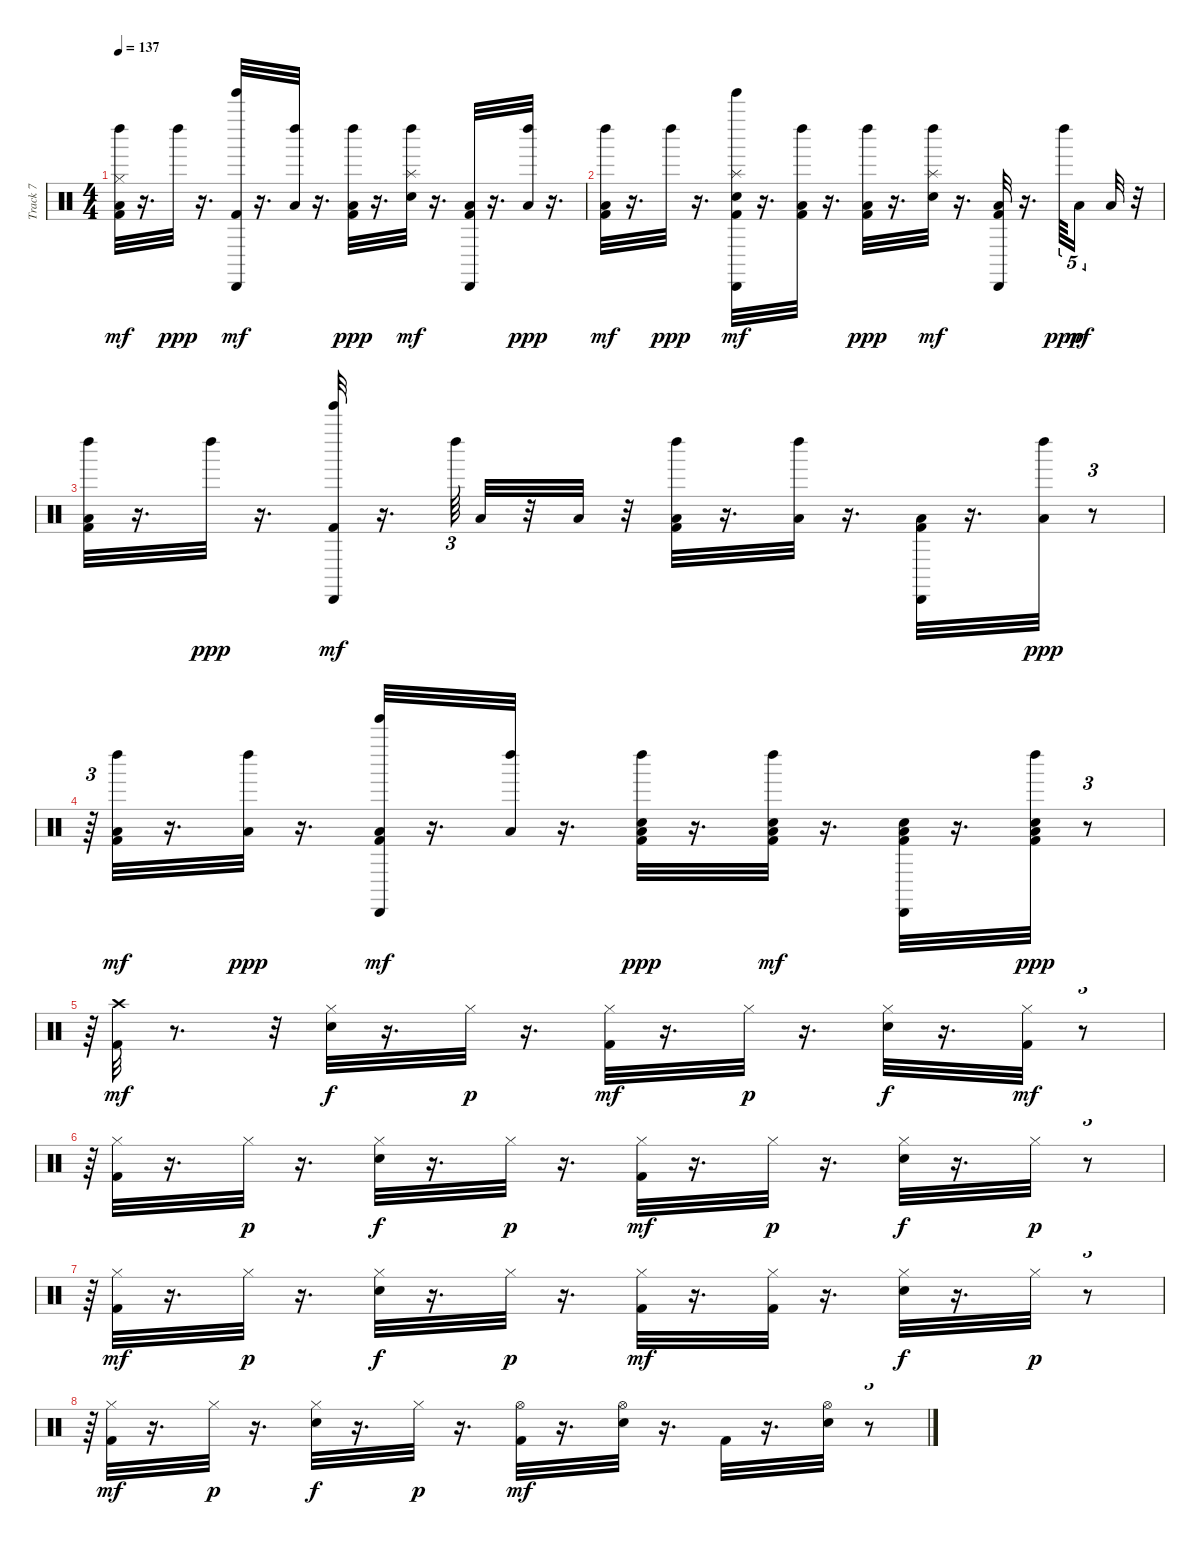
\track ("Track 7" "Track 7") {instrument percussion}
\staff {score}
\articulation defaults
\ts (4 4)
\tempo 137
\clef neutral
\ks c
("Hi-Hat (closed)" "Low Tom (hit)" "Kick (hit) 2" "Left Maraca (hit)").32{dy mf} r.16{d} "Left Maraca (hit)".32{dy ppp} r.16{d} ("Tinkle Bell (hit)" "Kick (hit) 2" "Cabasa (hit)").32{dy mf} r.16{d} ("Low Tom (hit)" "Left Maraca (hit)").32 r.16{d} ("Low Tom (hit)" "Kick (hit) 2" "Left Maraca (hit)").32{dy ppp} r.16{d} ("Splash (hit)" "Snare (hit) 2" "Left Maraca (hit)").32{dy mf} r.16{d} ("Low Tom (hit)" "Kick (hit) 2" "Cabasa (hit)").32 r.16{d} ("Low Tom (hit)" "Left Maraca (hit)").32{dy ppp} r.16{d} |
("Low Tom (hit)" "Kick (hit) 2" "Left Maraca (hit)").32{dy mf} r.16{d} "Left Maraca (hit)".32{dy ppp} r.16{d} ("Tinkle Bell (hit)" "Splash (hit)" "Snare (hit) 2" "Kick (hit) 2" "Cabasa (hit)").32{dy mf} r.16{d} ("Kick (hit) 2" "Low Tom (hit)" "Left Maraca (hit)").32 r.16{d} ("Low Tom (hit)" "Kick (hit) 2" "Left Maraca (hit)").32{dy ppp} r.16{d} ("Splash (hit)" "Snare (hit) 2" "Left Maraca (hit)").32{dy mf} r.16{d} ("Low Tom (hit)" "Kick (hit) 2" "Cabasa (hit)").32 r.16{d} "Left Maraca (hit)".64{tu (5 4) dy ppp} "Low Tom (hit)".16{tu (5 4) dy mf beam splitsecondary} "Low Tom (hit)".32 r.32 |
("Low Tom (hit)" "Kick (hit) 2" "Left Maraca (hit)").32 r.16{d} "Left Maraca (hit)".32{dy ppp} r.16{d} ("Tinkle Bell (hit)" "Kick (hit) 2" "Cabasa (hit)").32{dy mf} r.16{d} "Left Maraca (hit)".64{tu (3 2)} "Low Tom (hit)".32 r.32 "Low Tom (hit)".32 r.32 ("Low Tom (hit)" "Left Maraca (hit)" "Kick (hit) 2").32 r.16{d} ("Low Tom (hit)" "Left Maraca (hit)").32 r.16{d} ("Low Floor Tom (hit)" "Kick (hit) 2" "Cabasa (hit)").32 r.16{d} ("Low Floor Tom (hit)" "Left Maraca (hit)").32{dy ppp} r.8{tu (3 2)} |
r.64{tu (3 2)} ("Low Tom (hit)" "Kick (hit) 2" "Left Maraca (hit)").32{dy mf} r.16{d} ("Low Tom (hit)" "Left Maraca (hit)").32{dy ppp} r.16{d} ("Tinkle Bell (hit)" "Low Tom (hit)" "Kick (hit) 2" "Cabasa (hit)").32{dy mf} r.16{d} ("Low Tom (hit)" "Left Maraca (hit)").32 r.16{d} ("Low Tom (hit)" "Snare (hit) 2" "Kick (hit) 2" "Left Maraca (hit)").32{dy ppp} r.16{d} ("Low Tom (hit)" "Snare (hit) 2" "Kick (hit) 2" "Left Maraca (hit)").32{dy mf} r.16{d} ("Low Tom (hit)" "Snare (hit) 2" "Kick (hit) 2" "Cabasa (hit)").32 r.16{d} ("Low Tom (hit)" "Snare (hit) 2" "Kick (hit) 2" "Left Maraca (hit)").32{dy ppp} r.8{tu (3 2)} |
r.64{tu (3 2)} ("Kick (hit) 2" "Crash high (hit)").32{dy mf} r.8{d} r.32 ("Hi-Hat (closed)" "Snare (hit) 2").32{dy f} r.16{d} "Hi-Hat (closed)".32{dy p} r.16{d} ("Hi-Hat (closed)" "Kick (hit) 2").32{dy mf} r.16{d} "Hi-Hat (closed)".32{dy p} r.16{d} ("Hi-Hat (closed)" "Snare (hit) 2").32{dy f} r.16{d} ("Hi-Hat (closed)" "Kick (hit) 2").32{dy mf} r.8{tu (3 2)} |
r.64{tu (3 2)} ("Hi-Hat (closed)" "Kick (hit) 2").32 r.16{d} "Hi-Hat (closed)".32{dy p} r.16{d} ("Hi-Hat (closed)" "Snare (hit) 2").32{dy f} r.16{d} "Hi-Hat (closed)".32{dy p} r.16{d} ("Hi-Hat (closed)" "Kick (hit) 2").32{dy mf} r.16{d} "Hi-Hat (closed)".32{dy p} r.16{d} ("Hi-Hat (closed)" "Snare (hit) 2").32{dy f} r.16{d} "Hi-Hat (closed)".32{dy p} r.8{tu (3 2)} |
r.64{tu (3 2)} ("Hi-Hat (closed)" "Kick (hit) 2").32{dy mf} r.16{d} "Hi-Hat (closed)".32{dy p} r.16{d} ("Hi-Hat (closed)" "Snare (hit) 2").32{dy f} r.16{d} "Hi-Hat (closed)".32{dy p} r.16{d} ("Hi-Hat (closed)" "Kick (hit) 2").32{dy mf} r.16{d} ("Hi-Hat (closed)" "Kick (hit) 2").32 r.16{d} ("Hi-Hat (closed)" "Snare (hit) 2").32{dy f} r.16{d} "Hi-Hat (closed)".32{dy p} r.8{tu (3 2)} |
r.64{tu (3 2)} ("Hi-Hat (closed)" "Kick (hit) 2").32{dy mf} r.16{d} "Hi-Hat (closed)".32{dy p} r.16{d} ("Hi-Hat (closed)" "Snare (hit) 2").32{dy f} r.16{d} "Hi-Hat (closed)".32{dy p} r.16{d} ("Hi-Hat (open)" "Kick (hit) 2").32{dy mf} r.16{d} ("Hi-Hat (open)" "Snare (hit) 2").32 r.16{d} "Kick (hit) 2".32 r.16{d} ("Hi-Hat (open)" "Snare (hit) 2").32 r.8{tu (3 2)}
